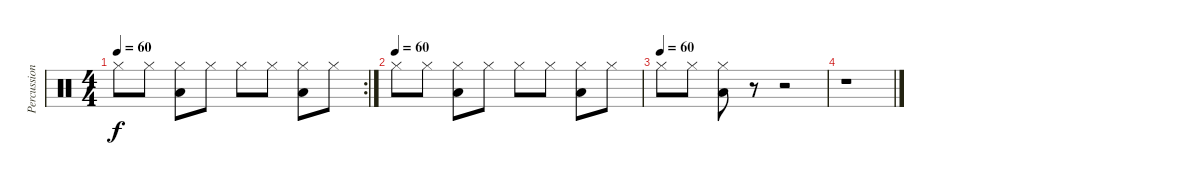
\track ("Percussions" "Percussion") {instrument percussion}
\staff {score}
\articulation defaults
\rc 2
\ts (4 4)
\tempo 60
\clef neutral
\ks c "Hi-Hat (closed)".8{dy f} "Hi-Hat (closed)".8
("Hi-Hat (closed)" "Low Tom (hit)").8 "Hi-Hat (closed)".8 "Hi-Hat (closed)".8 "Hi-Hat (closed)".8 ("Hi-Hat (closed)" "Low Tom (hit)").8 "Hi-Hat (closed)".8 |
\tempo (60)
"Hi-Hat (closed)".8 "Hi-Hat (closed)".8 ("Hi-Hat (closed)" "Low Tom (hit)").8 "Hi-Hat (closed)".8 "Hi-Hat (closed)".8 "Hi-Hat (closed)".8 ("Hi-Hat (closed)" "Low Tom (hit)").8 "Hi-Hat (closed)".8 |
\tempo (60)
"Hi-Hat (closed)".8 "Hi-Hat (closed)".8 ("Hi-Hat (closed)" "Low Tom (hit)").8 r.8 r.2 |
r.1
